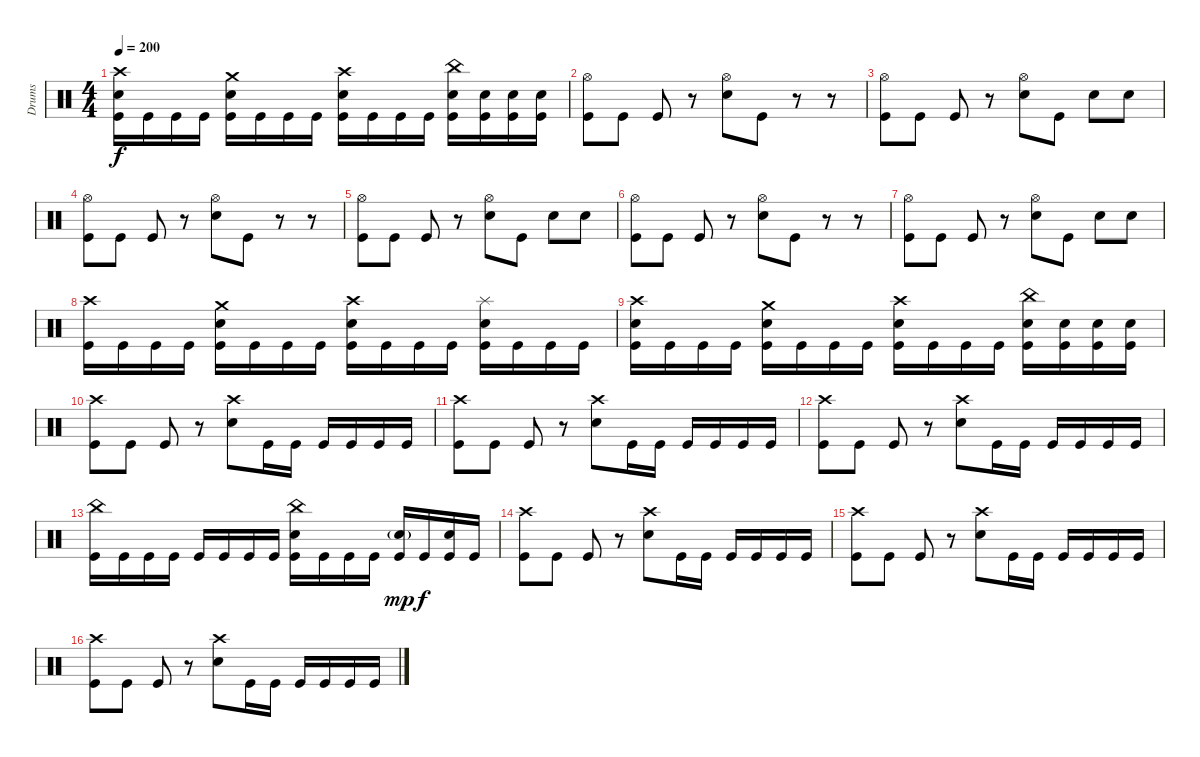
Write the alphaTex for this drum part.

\track ("Drums" "Drums") {instrument percussion}
\staff {score}
\articulation defaults
\ts (4 4)
\tempo 200
\clef neutral
\ks c
("Crash high (hit)" "Snare (hit) 2" "Kick (hit)").16{dy f} "Kick (hit)".16 "Kick (hit)".16 "Kick (hit)".16 ("Crash medium (hit)" "Snare (hit) 2" "Kick (hit)").16 "Kick (hit)".16 "Kick (hit)".16 "Kick (hit)".16 ("Crash high (hit)" "Snare (hit) 2" "Kick (hit)").16 "Kick (hit)".16 "Kick (hit)".16 "Kick (hit)".16 ("China (hit)" "Snare (hit) 2" "Kick (hit)").16 ("Snare (hit) 2" "Kick (hit)").16 ("Snare (hit) 2" "Kick (hit)").16 ("Snare (hit) 2" "Kick (hit)").16 |
("Hi-Hat (open)" "Kick (hit)").8 "Kick (hit)".8 "Kick (hit)".8 r.8 ("Hi-Hat (open)" "Snare (hit) 2").8 "Kick (hit)".8 r.8 r.8 |
("Hi-Hat (open)" "Kick (hit)").8 "Kick (hit)".8 "Kick (hit)".8 r.8 ("Hi-Hat (open)" "Snare (hit) 2").8 "Kick (hit)".8 "Snare (hit) 2".8 "Snare (hit) 2".8 |
("Hi-Hat (open)" "Kick (hit)").8 "Kick (hit)".8 "Kick (hit)".8 r.8 ("Hi-Hat (open)" "Snare (hit) 2").8 "Kick (hit)".8 r.8 r.8 |
("Hi-Hat (open)" "Kick (hit)").8 "Kick (hit)".8 "Kick (hit)".8 r.8 ("Hi-Hat (open)" "Snare (hit) 2").8 "Kick (hit)".8 "Snare (hit) 2".8 "Snare (hit) 2".8 |
("Hi-Hat (open)" "Kick (hit)").8 "Kick (hit)".8 "Kick (hit)".8 r.8 ("Hi-Hat (open)" "Snare (hit) 2").8 "Kick (hit)".8 r.8 r.8 |
("Hi-Hat (open)" "Kick (hit)").8 "Kick (hit)".8 "Kick (hit)".8 r.8 ("Hi-Hat (open)" "Snare (hit) 2").8 "Kick (hit)".8 "Snare (hit) 2".8 "Snare (hit) 2".8 |
("Crash high (hit)" "Kick (hit)").16 "Kick (hit)".16 "Kick (hit)".16 "Kick (hit)".16 ("Crash medium (hit)" "Snare (hit) 2" "Kick (hit)").16 "Kick (hit)".16 "Kick (hit)".16 "Kick (hit)".16 ("Crash high (hit)" "Snare (hit) 2" "Kick (hit)").16 "Kick (hit)".16 "Kick (hit)".16 "Kick (hit)".16 ("Splash (hit)" "Snare (hit) 2" "Kick (hit)").16 "Kick (hit)".16 "Kick (hit)".16 "Kick (hit)".16 |
("Crash high (hit)" "Snare (hit) 2" "Kick (hit)").16 "Kick (hit)".16 "Kick (hit)".16 "Kick (hit)".16 ("Crash medium (hit)" "Snare (hit) 2" "Kick (hit)").16 "Kick (hit)".16 "Kick (hit)".16 "Kick (hit)".16 ("Crash high (hit)" "Snare (hit) 2" "Kick (hit)").16 "Kick (hit)".16 "Kick (hit)".16 "Kick (hit)".16 ("China (hit)" "Snare (hit) 2" "Kick (hit)").16 ("Snare (hit) 2" "Kick (hit)").16 ("Snare (hit) 2" "Kick (hit)").16 ("Snare (hit) 2" "Kick (hit)").16 |
("Crash high (hit)" "Kick (hit)").8 "Kick (hit)".8 "Kick (hit)".8 r.8 ("Crash high (hit)" "Snare (hit) 2").8 "Kick (hit)".16 "Kick (hit)".16 "Kick (hit)".16 "Kick (hit)".16 "Kick (hit)".16 "Kick (hit)".16 |
("Crash high (hit)" "Kick (hit)").8 "Kick (hit)".8 "Kick (hit)".8 r.8 ("Crash high (hit)" "Snare (hit) 2").8 "Kick (hit)".16 "Kick (hit)".16 "Kick (hit)".16 "Kick (hit)".16 "Kick (hit)".16 "Kick (hit)".16 |
("Crash high (hit)" "Kick (hit)").8 "Kick (hit)".8 "Kick (hit)".8 r.8 ("Crash high (hit)" "Snare (hit) 2").8 "Kick (hit)".16 "Kick (hit)".16 "Kick (hit)".16 "Kick (hit)".16 "Kick (hit)".16 "Kick (hit)".16 |
("China (hit)" "Kick (hit)").16 "Kick (hit)".16 "Kick (hit)".16 "Kick (hit)".16 "Kick (hit)".16 "Kick (hit)".16 "Kick (hit)".16 "Kick (hit)".16 ("China (hit)" "Snare (hit) 2" "Kick (hit)").16 "Kick (hit)".16 "Kick (hit)".16 "Kick (hit)".16 ("Snare (hit) 2"{g} "Kick (hit)").16{dy mp} "Kick (hit)".16{dy f} ("Snare (hit) 2" "Kick (hit)").16 "Kick (hit)".16 |
("Crash high (hit)" "Kick (hit)").8 "Kick (hit)".8 "Kick (hit)".8 r.8 ("Crash high (hit)" "Snare (hit) 2").8 "Kick (hit)".16 "Kick (hit)".16 "Kick (hit)".16 "Kick (hit)".16 "Kick (hit)".16 "Kick (hit)".16 |
("Crash high (hit)" "Kick (hit)").8 "Kick (hit)".8 "Kick (hit)".8 r.8 ("Crash high (hit)" "Snare (hit) 2").8 "Kick (hit)".16 "Kick (hit)".16 "Kick (hit)".16 "Kick (hit)".16 "Kick (hit)".16 "Kick (hit)".16 |
("Crash high (hit)" "Kick (hit)").8 "Kick (hit)".8 "Kick (hit)".8 r.8 ("Crash high (hit)" "Snare (hit) 2").8 "Kick (hit)".16 "Kick (hit)".16 "Kick (hit)".16 "Kick (hit)".16 "Kick (hit)".16 "Kick (hit)".16
